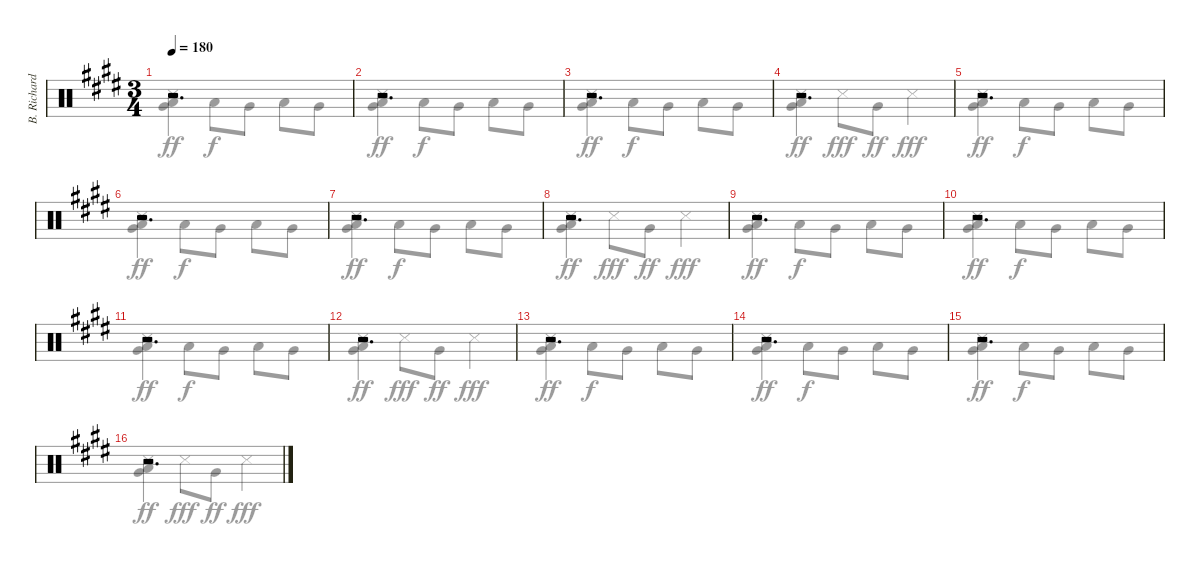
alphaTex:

\track ("B. Richardson Drums" "B. Richard") {instrument percussion}
\staff {score}
\articulation defaults
\voice
\ts (3 4)
\tempo 180
\clef neutral
\ks c#minor
r.2{d dy pp} |
r.2{d} |
r.2{d} |
r.2{d} |
r.2{d} |
r.2{d} |
r.2{d} |
r.2{d} |
r.2{d} |
r.2{d} |
r.2{d} |
r.2{d} |
r.2{d} |
r.2{d} |
r.2{d} |
r.2{d}
\voice
\clef neutral
\ottava regular
\simile none
\ks c#minor
("Snare (side stick) 3" "Very Low Tom (hit)" "Low Floor Tom (hit)").4{dy ff} "Low Floor Tom (hit)".8{dy f} "Very Low Tom (hit)".8 "Low Floor Tom (hit)".8 "Very Low Tom (hit)".8 |
("Snare (side stick) 3" "Very Low Tom (hit)" "Low Floor Tom (hit)").4{dy ff} "Low Floor Tom (hit)".8{dy f} "Very Low Tom (hit)".8 "Low Floor Tom (hit)".8 "Very Low Tom (hit)".8 |
("Snare (side stick) 3" "Very Low Tom (hit)" "Low Floor Tom (hit)").4{dy ff} "Low Floor Tom (hit)".8{dy f} "Very Low Tom (hit)".8 "Low Floor Tom (hit)".8 "Very Low Tom (hit)".8 |
("Snare (side stick) 3" "Very Low Tom (hit)" "Low Floor Tom (hit)").4{dy ff} "Snare (side stick) 3".8{dy fff} "Very Low Tom (hit)".8{dy ff} "Snare (side stick) 3".4{dy fff} |
("Snare (side stick) 3" "Very Low Tom (hit)" "Low Floor Tom (hit)").4{dy ff} "Low Floor Tom (hit)".8{dy f} "Very Low Tom (hit)".8 "Low Floor Tom (hit)".8 "Very Low Tom (hit)".8 |
("Snare (side stick) 3" "Very Low Tom (hit)" "Low Floor Tom (hit)").4{dy ff} "Low Floor Tom (hit)".8{dy f} "Very Low Tom (hit)".8 "Low Floor Tom (hit)".8 "Very Low Tom (hit)".8 |
("Snare (side stick) 3" "Very Low Tom (hit)" "Low Floor Tom (hit)").4{dy ff} "Low Floor Tom (hit)".8{dy f} "Very Low Tom (hit)".8 "Low Floor Tom (hit)".8 "Very Low Tom (hit)".8 |
("Snare (side stick) 3" "Very Low Tom (hit)" "Low Floor Tom (hit)").4{dy ff} "Snare (side stick) 3".8{dy fff} "Very Low Tom (hit)".8{dy ff} "Snare (side stick) 3".4{dy fff} |
("Snare (side stick) 3" "Very Low Tom (hit)" "Low Floor Tom (hit)").4{dy ff} "Low Floor Tom (hit)".8{dy f} "Very Low Tom (hit)".8 "Low Floor Tom (hit)".8 "Very Low Tom (hit)".8 |
("Snare (side stick) 3" "Very Low Tom (hit)" "Low Floor Tom (hit)").4{dy ff} "Low Floor Tom (hit)".8{dy f} "Very Low Tom (hit)".8 "Low Floor Tom (hit)".8 "Very Low Tom (hit)".8 |
("Snare (side stick) 3" "Very Low Tom (hit)" "Low Floor Tom (hit)").4{dy ff} "Low Floor Tom (hit)".8{dy f} "Very Low Tom (hit)".8 "Low Floor Tom (hit)".8 "Very Low Tom (hit)".8 |
("Snare (side stick) 3" "Very Low Tom (hit)" "Low Floor Tom (hit)").4{dy ff} "Snare (side stick) 3".8{dy fff} "Very Low Tom (hit)".8{dy ff} "Snare (side stick) 3".4{dy fff} |
("Snare (side stick) 3" "Very Low Tom (hit)" "Low Floor Tom (hit)").4{dy ff} "Low Floor Tom (hit)".8{dy f} "Very Low Tom (hit)".8 "Low Floor Tom (hit)".8 "Very Low Tom (hit)".8 |
("Snare (side stick) 3" "Very Low Tom (hit)" "Low Floor Tom (hit)").4{dy ff} "Low Floor Tom (hit)".8{dy f} "Very Low Tom (hit)".8 "Low Floor Tom (hit)".8 "Very Low Tom (hit)".8 |
("Snare (side stick) 3" "Very Low Tom (hit)" "Low Floor Tom (hit)").4{dy ff} "Low Floor Tom (hit)".8{dy f} "Very Low Tom (hit)".8 "Low Floor Tom (hit)".8 "Very Low Tom (hit)".8 |
("Snare (side stick) 3" "Very Low Tom (hit)" "Low Floor Tom (hit)").4{dy ff} "Snare (side stick) 3".8{dy fff} "Very Low Tom (hit)".8{dy ff} "Snare (side stick) 3".4{dy fff}
